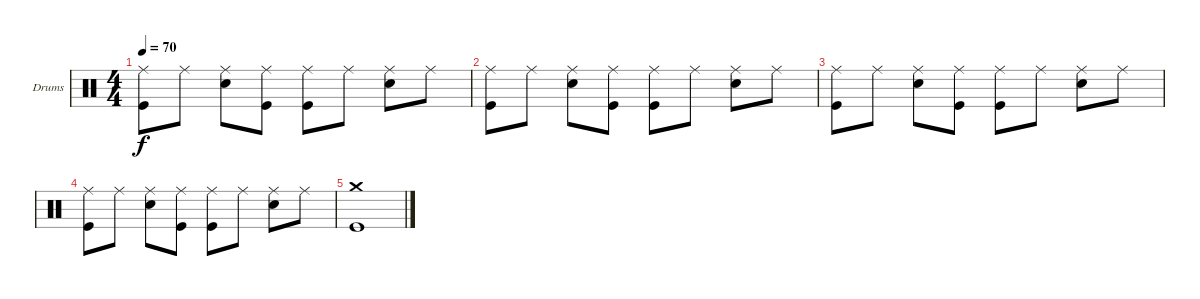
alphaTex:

\bracketExtendMode groupsimilarinstruments
\firstSystemTrackNameOrientation horizontal
\otherSystemsTrackNameOrientation horizontal
\track ("Drumkit" "Drums") {instrument percussion}
\staff {score}
\articulation defaults
\ts (4 4)
\tempo 70
\clef neutral
\scale
0.333333
\ks c
("Kick (hit)" "Ride (middle)").8{dy f} "Ride (middle)".8 ("Ride (middle)" "Snare (hit) 2").8 ("Ride (middle)" "Kick (hit)").8 ("Ride (middle)" "Kick (hit)").8 "Ride (middle)".8 ("Ride (middle)" "Snare (hit) 2").8 "Ride (middle)".8 |
\scale
0.333333 ("Kick (hit)" "Ride (middle)").8 "Ride (middle)".8 ("Ride (middle)" "Snare (hit) 2").8 ("Ride (middle)" "Kick (hit)").8 ("Ride (middle)" "Kick (hit)").8 "Ride (middle)".8 ("Ride (middle)" "Snare (hit) 2").8 "Ride (middle)".8 |
("Kick (hit)" "Ride (middle)").8 "Ride (middle)".8 ("Ride (middle)" "Snare (hit) 2").8 ("Ride (middle)" "Kick (hit)").8 ("Ride (middle)" "Kick (hit)").8 "Ride (middle)".8 ("Ride (middle)" "Snare (hit) 2").8 "Ride (middle)".8 |
("Kick (hit)" "Ride (middle)").8 "Ride (middle)".8 ("Ride (middle)" "Snare (hit) 2").8 ("Ride (middle)" "Kick (hit)").8 ("Ride (middle)" "Kick (hit)").8 "Ride (middle)".8 ("Ride (middle)" "Snare (hit) 2").8 "Ride (middle)".8 |
("Crash medium (hit)" "Kick (hit)").1
